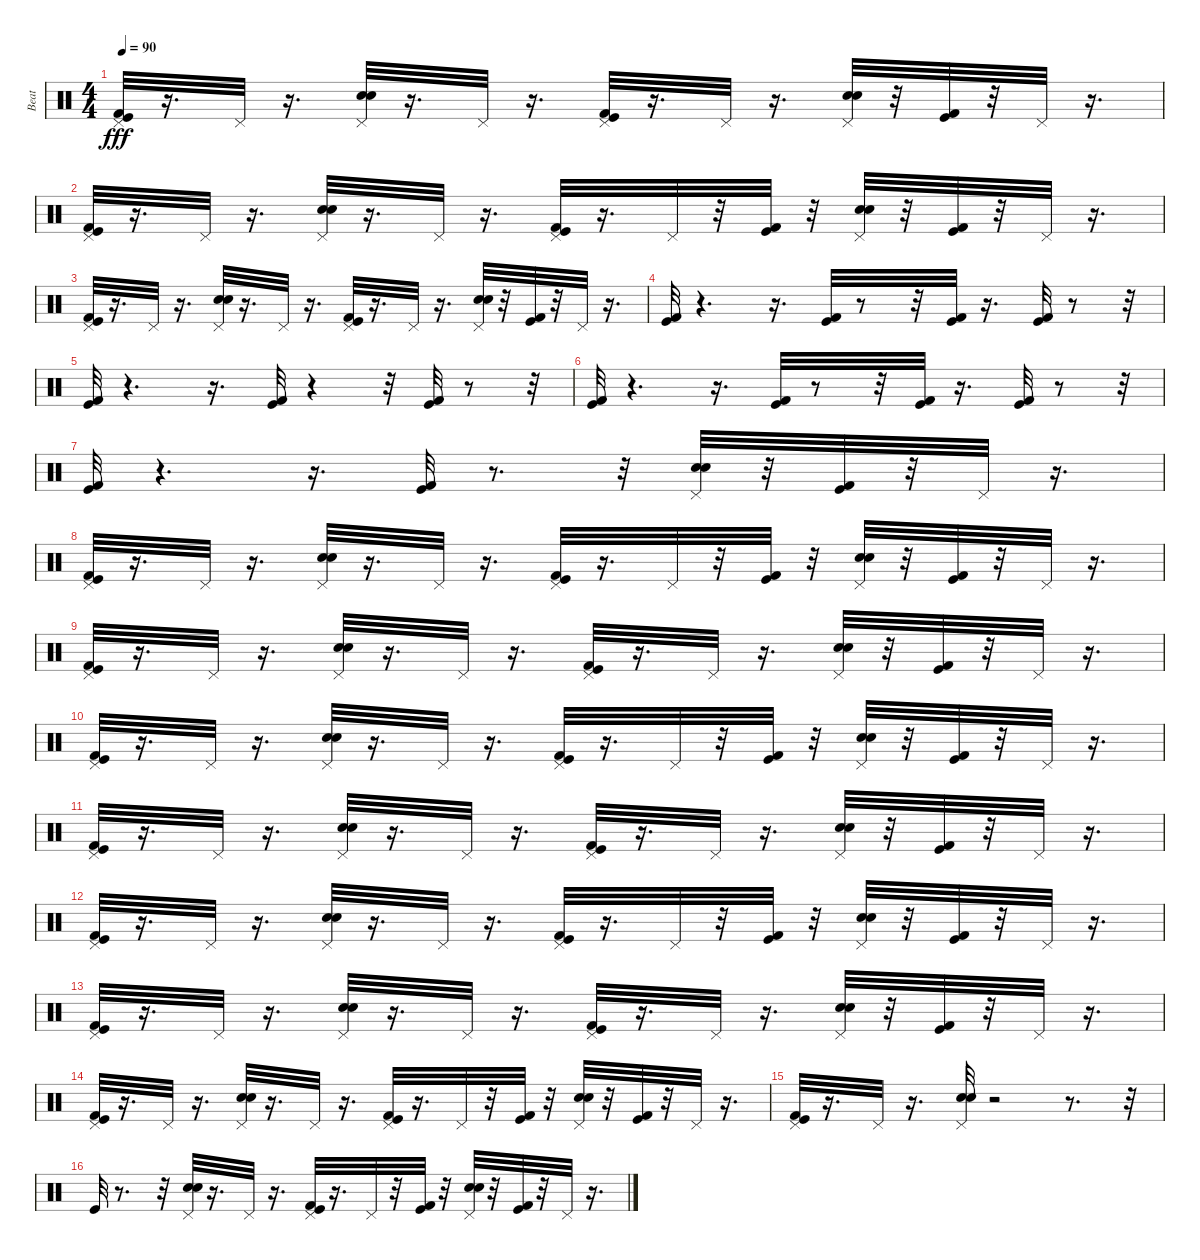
\track ("Beat" "Beat") {instrument percussion}
\staff {score}
\articulation defaults
\ts (4 4)
\tempo 90
\clef neutral
\ks c
("Kick (hit) 2" "Kick (hit)" "Pedal Hi-Hat (hit)").32{dy fff} r.16{d} "Pedal Hi-Hat (hit)".32 r.16{d} ("Electric Snare (hit)" "Snare (hit) 2" "Pedal Hi-Hat (hit)").32 r.16{d} "Pedal Hi-Hat (hit)".32 r.16{d} ("Kick (hit) 2" "Kick (hit)" "Pedal Hi-Hat (hit)").32 r.16{d} "Pedal Hi-Hat (hit)".32 r.16{d} ("Electric Snare (hit)" "Snare (hit) 2" "Pedal Hi-Hat (hit)").32 r.32 ("Kick (hit) 2" "Kick (hit)").32 r.32 "Pedal Hi-Hat (hit)".32 r.16{d} |
("Kick (hit) 2" "Kick (hit)" "Pedal Hi-Hat (hit)").32 r.16{d} "Pedal Hi-Hat (hit)".32 r.16{d} ("Electric Snare (hit)" "Snare (hit) 2" "Pedal Hi-Hat (hit)").32 r.16{d} "Pedal Hi-Hat (hit)".32 r.16{d} ("Kick (hit) 2" "Kick (hit)" "Pedal Hi-Hat (hit)").32 r.16{d} "Pedal Hi-Hat (hit)".32 r.32 ("Kick (hit) 2" "Kick (hit)").32 r.32 ("Electric Snare (hit)" "Snare (hit) 2" "Pedal Hi-Hat (hit)").32 r.32 ("Kick (hit) 2" "Kick (hit)").32 r.32 "Pedal Hi-Hat (hit)".32 r.16{d} |
("Kick (hit) 2" "Kick (hit)" "Pedal Hi-Hat (hit)").32 r.16{d} "Pedal Hi-Hat (hit)".32 r.16{d} ("Electric Snare (hit)" "Snare (hit) 2" "Pedal Hi-Hat (hit)").32 r.16{d} "Pedal Hi-Hat (hit)".32 r.16{d} ("Kick (hit) 2" "Kick (hit)" "Pedal Hi-Hat (hit)").32 r.16{d} "Pedal Hi-Hat (hit)".32 r.16{d} ("Electric Snare (hit)" "Snare (hit) 2" "Pedal Hi-Hat (hit)").32 r.32 ("Kick (hit) 2" "Kick (hit)").32 r.32 "Pedal Hi-Hat (hit)".32 r.16{d} |
("Kick (hit) 2" "Kick (hit)").32 r.4{d} r.16{d} ("Kick (hit) 2" "Kick (hit)").32 r.8 r.32 ("Kick (hit) 2" "Kick (hit)").32 r.16{d} ("Kick (hit) 2" "Kick (hit)").32 r.8 r.32 |
("Kick (hit) 2" "Kick (hit)").32 r.4{d} r.16{d} ("Kick (hit) 2" "Kick (hit)").32 r.4 r.32 ("Kick (hit) 2" "Kick (hit)").32 r.8 r.32 |
("Kick (hit) 2" "Kick (hit)").32 r.4{d} r.16{d} ("Kick (hit) 2" "Kick (hit)").32 r.8 r.32 ("Kick (hit) 2" "Kick (hit)").32 r.16{d} ("Kick (hit) 2" "Kick (hit)").32 r.8 r.32 |
("Kick (hit) 2" "Kick (hit)").32 r.4{d} r.16{d} ("Kick (hit) 2" "Kick (hit)").32 r.8{d} r.32 ("Electric Snare (hit)" "Snare (hit) 2" "Pedal Hi-Hat (hit)").32 r.32 ("Kick (hit) 2" "Kick (hit)").32 r.32 "Pedal Hi-Hat (hit)".32 r.16{d} |
("Kick (hit) 2" "Kick (hit)" "Pedal Hi-Hat (hit)").32 r.16{d} "Pedal Hi-Hat (hit)".32 r.16{d} ("Electric Snare (hit)" "Snare (hit) 2" "Pedal Hi-Hat (hit)").32 r.16{d} "Pedal Hi-Hat (hit)".32 r.16{d} ("Kick (hit) 2" "Kick (hit)" "Pedal Hi-Hat (hit)").32 r.16{d} "Pedal Hi-Hat (hit)".32 r.32 ("Kick (hit) 2" "Kick (hit)").32 r.32 ("Electric Snare (hit)" "Snare (hit) 2" "Pedal Hi-Hat (hit)").32 r.32 ("Kick (hit) 2" "Kick (hit)").32 r.32 "Pedal Hi-Hat (hit)".32 r.16{d} |
("Kick (hit) 2" "Kick (hit)" "Pedal Hi-Hat (hit)").32 r.16{d} "Pedal Hi-Hat (hit)".32 r.16{d} ("Electric Snare (hit)" "Snare (hit) 2" "Pedal Hi-Hat (hit)").32 r.16{d} "Pedal Hi-Hat (hit)".32 r.16{d} ("Kick (hit) 2" "Kick (hit)" "Pedal Hi-Hat (hit)").32 r.16{d} "Pedal Hi-Hat (hit)".32 r.16{d} ("Electric Snare (hit)" "Snare (hit) 2" "Pedal Hi-Hat (hit)").32 r.32 ("Kick (hit) 2" "Kick (hit)").32 r.32 "Pedal Hi-Hat (hit)".32 r.16{d} |
("Kick (hit) 2" "Kick (hit)" "Pedal Hi-Hat (hit)").32 r.16{d} "Pedal Hi-Hat (hit)".32 r.16{d} ("Electric Snare (hit)" "Snare (hit) 2" "Pedal Hi-Hat (hit)").32 r.16{d} "Pedal Hi-Hat (hit)".32 r.16{d} ("Kick (hit) 2" "Kick (hit)" "Pedal Hi-Hat (hit)").32 r.16{d} "Pedal Hi-Hat (hit)".32 r.32 ("Kick (hit) 2" "Kick (hit)").32 r.32 ("Electric Snare (hit)" "Snare (hit) 2" "Pedal Hi-Hat (hit)").32 r.32 ("Kick (hit) 2" "Kick (hit)").32 r.32 "Pedal Hi-Hat (hit)".32 r.16{d} |
("Kick (hit) 2" "Kick (hit)" "Pedal Hi-Hat (hit)").32 r.16{d} "Pedal Hi-Hat (hit)".32 r.16{d} ("Electric Snare (hit)" "Snare (hit) 2" "Pedal Hi-Hat (hit)").32 r.16{d} "Pedal Hi-Hat (hit)".32 r.16{d} ("Kick (hit) 2" "Kick (hit)" "Pedal Hi-Hat (hit)").32 r.16{d} "Pedal Hi-Hat (hit)".32 r.16{d} ("Electric Snare (hit)" "Snare (hit) 2" "Pedal Hi-Hat (hit)").32 r.32 ("Kick (hit) 2" "Kick (hit)").32 r.32 "Pedal Hi-Hat (hit)".32 r.16{d} |
("Kick (hit) 2" "Kick (hit)" "Pedal Hi-Hat (hit)").32 r.16{d} "Pedal Hi-Hat (hit)".32 r.16{d} ("Electric Snare (hit)" "Snare (hit) 2" "Pedal Hi-Hat (hit)").32 r.16{d} "Pedal Hi-Hat (hit)".32 r.16{d} ("Kick (hit) 2" "Kick (hit)" "Pedal Hi-Hat (hit)").32 r.16{d} "Pedal Hi-Hat (hit)".32 r.32 ("Kick (hit) 2" "Kick (hit)").32 r.32 ("Electric Snare (hit)" "Snare (hit) 2" "Pedal Hi-Hat (hit)").32 r.32 ("Kick (hit) 2" "Kick (hit)").32 r.32 "Pedal Hi-Hat (hit)".32 r.16{d} |
("Kick (hit) 2" "Kick (hit)" "Pedal Hi-Hat (hit)").32 r.16{d} "Pedal Hi-Hat (hit)".32 r.16{d} ("Electric Snare (hit)" "Snare (hit) 2" "Pedal Hi-Hat (hit)").32 r.16{d} "Pedal Hi-Hat (hit)".32 r.16{d} ("Kick (hit) 2" "Kick (hit)" "Pedal Hi-Hat (hit)").32 r.16{d} "Pedal Hi-Hat (hit)".32 r.16{d} ("Electric Snare (hit)" "Snare (hit) 2" "Pedal Hi-Hat (hit)").32 r.32 ("Kick (hit) 2" "Kick (hit)").32 r.32 "Pedal Hi-Hat (hit)".32 r.16{d} |
("Kick (hit) 2" "Kick (hit)" "Pedal Hi-Hat (hit)").32 r.16{d} "Pedal Hi-Hat (hit)".32 r.16{d} ("Electric Snare (hit)" "Snare (hit) 2" "Pedal Hi-Hat (hit)").32 r.16{d} "Pedal Hi-Hat (hit)".32 r.16{d} ("Kick (hit) 2" "Kick (hit)" "Pedal Hi-Hat (hit)").32 r.16{d} "Pedal Hi-Hat (hit)".32 r.32 ("Kick (hit) 2" "Kick (hit)").32 r.32 ("Electric Snare (hit)" "Snare (hit) 2" "Pedal Hi-Hat (hit)").32 r.32 ("Kick (hit) 2" "Kick (hit)").32 r.32 "Pedal Hi-Hat (hit)".32 r.16{d} |
("Kick (hit) 2" "Kick (hit)" "Pedal Hi-Hat (hit)").32 r.16{d} "Pedal Hi-Hat (hit)".32 r.16{d} ("Electric Snare (hit)" "Snare (hit) 2" "Pedal Hi-Hat (hit)").32 r.2 r.8{d} r.32 |
"Kick (hit)".32 r.8{d} r.32 ("Electric Snare (hit)" "Snare (hit) 2" "Pedal Hi-Hat (hit)").32 r.16{d} "Pedal Hi-Hat (hit)".32 r.16{d} ("Kick (hit) 2" "Kick (hit)" "Pedal Hi-Hat (hit)").32 r.16{d} "Pedal Hi-Hat (hit)".32 r.32 ("Kick (hit) 2" "Kick (hit)").32 r.32 ("Electric Snare (hit)" "Snare (hit) 2" "Pedal Hi-Hat (hit)").32 r.32 ("Kick (hit) 2" "Kick (hit)").32 r.32 "Pedal Hi-Hat (hit)".32 r.16{d}
